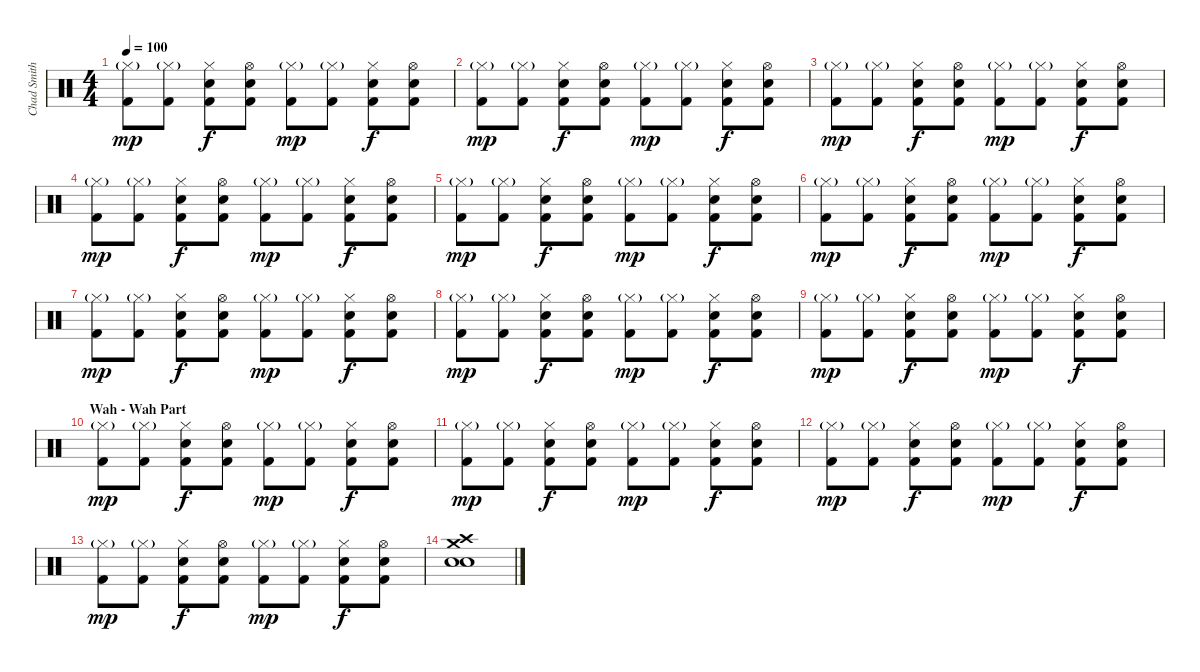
\track ("Chad Smith - Drums" "Chad Smith") {instrument percussion}
\staff {score}
\articulation defaults
\ts (4 4)
\tempo 100
\clef neutral
\ks c
("Hi-Hat (closed)"{g} "Kick (hit) 2").8{dy mp} ("Hi-Hat (closed)"{g} "Kick (hit) 2").8 ("Hi-Hat (closed)" "Electric Snare (hit)" "Kick (hit) 2").8{dy f} ("Hi-Hat (open)" "Electric Snare (hit)" "Kick (hit) 2").8 ("Hi-Hat (closed)"{g} "Kick (hit) 2").8{dy mp} ("Hi-Hat (closed)"{g} "Kick (hit) 2").8 ("Hi-Hat (closed)" "Electric Snare (hit)" "Kick (hit) 2").8{dy f} ("Hi-Hat (open)" "Electric Snare (hit)" "Kick (hit) 2").8 |
("Hi-Hat (closed)"{g} "Kick (hit) 2").8{dy mp} ("Hi-Hat (closed)"{g} "Kick (hit) 2").8 ("Hi-Hat (closed)" "Electric Snare (hit)" "Kick (hit) 2").8{dy f} ("Hi-Hat (open)" "Electric Snare (hit)" "Kick (hit) 2").8 ("Hi-Hat (closed)"{g} "Kick (hit) 2").8{dy mp} ("Hi-Hat (closed)"{g} "Kick (hit) 2").8 ("Hi-Hat (closed)" "Electric Snare (hit)" "Kick (hit) 2").8{dy f} ("Hi-Hat (open)" "Electric Snare (hit)" "Kick (hit) 2").8 |
("Hi-Hat (closed)"{g} "Kick (hit) 2").8{dy mp} ("Hi-Hat (closed)"{g} "Kick (hit) 2").8 ("Hi-Hat (closed)" "Electric Snare (hit)" "Kick (hit) 2").8{dy f} ("Hi-Hat (open)" "Electric Snare (hit)" "Kick (hit) 2").8 ("Hi-Hat (closed)"{g} "Kick (hit) 2").8{dy mp} ("Hi-Hat (closed)"{g} "Kick (hit) 2").8 ("Hi-Hat (closed)" "Electric Snare (hit)" "Kick (hit) 2").8{dy f} ("Hi-Hat (open)" "Electric Snare (hit)" "Kick (hit) 2").8 |
("Hi-Hat (closed)"{g} "Kick (hit) 2").8{dy mp} ("Hi-Hat (closed)"{g} "Kick (hit) 2").8 ("Hi-Hat (closed)" "Electric Snare (hit)" "Kick (hit) 2").8{dy f} ("Hi-Hat (open)" "Electric Snare (hit)" "Kick (hit) 2").8 ("Hi-Hat (closed)"{g} "Kick (hit) 2").8{dy mp} ("Hi-Hat (closed)"{g} "Kick (hit) 2").8 ("Hi-Hat (closed)" "Electric Snare (hit)" "Kick (hit) 2").8{dy f} ("Hi-Hat (open)" "Electric Snare (hit)" "Kick (hit) 2").8 |
("Hi-Hat (closed)"{g} "Kick (hit) 2").8{dy mp} ("Hi-Hat (closed)"{g} "Kick (hit) 2").8 ("Hi-Hat (closed)" "Electric Snare (hit)" "Kick (hit) 2").8{dy f} ("Hi-Hat (open)" "Electric Snare (hit)" "Kick (hit) 2").8 ("Hi-Hat (closed)"{g} "Kick (hit) 2").8{dy mp} ("Hi-Hat (closed)"{g} "Kick (hit) 2").8 ("Hi-Hat (closed)" "Electric Snare (hit)" "Kick (hit) 2").8{dy f} ("Hi-Hat (open)" "Electric Snare (hit)" "Kick (hit) 2").8 |
("Hi-Hat (closed)"{g} "Kick (hit) 2").8{dy mp} ("Hi-Hat (closed)"{g} "Kick (hit) 2").8 ("Hi-Hat (closed)" "Electric Snare (hit)" "Kick (hit) 2").8{dy f} ("Hi-Hat (open)" "Electric Snare (hit)" "Kick (hit) 2").8 ("Hi-Hat (closed)"{g} "Kick (hit) 2").8{dy mp} ("Hi-Hat (closed)"{g} "Kick (hit) 2").8 ("Hi-Hat (closed)" "Electric Snare (hit)" "Kick (hit) 2").8{dy f} ("Hi-Hat (open)" "Electric Snare (hit)" "Kick (hit) 2").8 |
("Hi-Hat (closed)"{g} "Kick (hit) 2").8{dy mp} ("Hi-Hat (closed)"{g} "Kick (hit) 2").8 ("Hi-Hat (closed)" "Electric Snare (hit)" "Kick (hit) 2").8{dy f} ("Hi-Hat (open)" "Electric Snare (hit)" "Kick (hit) 2").8 ("Hi-Hat (closed)"{g} "Kick (hit) 2").8{dy mp} ("Hi-Hat (closed)"{g} "Kick (hit) 2").8 ("Hi-Hat (closed)" "Electric Snare (hit)" "Kick (hit) 2").8{dy f} ("Hi-Hat (open)" "Electric Snare (hit)" "Kick (hit) 2").8 |
("Hi-Hat (closed)"{g} "Kick (hit) 2").8{dy mp} ("Hi-Hat (closed)"{g} "Kick (hit) 2").8 ("Hi-Hat (closed)" "Electric Snare (hit)" "Kick (hit) 2").8{dy f} ("Hi-Hat (open)" "Electric Snare (hit)" "Kick (hit) 2").8 ("Hi-Hat (closed)"{g} "Kick (hit) 2").8{dy mp} ("Hi-Hat (closed)"{g} "Kick (hit) 2").8 ("Hi-Hat (closed)" "Electric Snare (hit)" "Kick (hit) 2").8{dy f} ("Hi-Hat (open)" "Electric Snare (hit)" "Kick (hit) 2").8 |
("Hi-Hat (closed)"{g} "Kick (hit) 2").8{dy mp} ("Hi-Hat (closed)"{g} "Kick (hit) 2").8 ("Hi-Hat (closed)" "Electric Snare (hit)" "Kick (hit) 2").8{dy f} ("Hi-Hat (open)" "Electric Snare (hit)" "Kick (hit) 2").8 ("Hi-Hat (closed)"{g} "Kick (hit) 2").8{dy mp} ("Hi-Hat (closed)"{g} "Kick (hit) 2").8 ("Hi-Hat (closed)" "Electric Snare (hit)" "Kick (hit) 2").8{dy f} ("Hi-Hat (open)" "Electric Snare (hit)" "Kick (hit) 2").8 |
\section ("" "Wah - Wah Part")
("Hi-Hat (closed)"{g} "Kick (hit) 2").8{dy mp} ("Hi-Hat (closed)"{g} "Kick (hit) 2").8 ("Hi-Hat (closed)" "Electric Snare (hit)" "Kick (hit) 2").8{dy f} ("Hi-Hat (open)" "Electric Snare (hit)" "Kick (hit) 2").8 ("Hi-Hat (closed)"{g} "Kick (hit) 2").8{dy mp} ("Hi-Hat (closed)"{g} "Kick (hit) 2").8 ("Hi-Hat (closed)" "Electric Snare (hit)" "Kick (hit) 2").8{dy f} ("Hi-Hat (open)" "Electric Snare (hit)" "Kick (hit) 2").8 |
("Hi-Hat (closed)"{g} "Kick (hit) 2").8{dy mp} ("Hi-Hat (closed)"{g} "Kick (hit) 2").8 ("Hi-Hat (closed)" "Electric Snare (hit)" "Kick (hit) 2").8{dy f} ("Hi-Hat (open)" "Electric Snare (hit)" "Kick (hit) 2").8 ("Hi-Hat (closed)"{g} "Kick (hit) 2").8{dy mp} ("Hi-Hat (closed)"{g} "Kick (hit) 2").8 ("Hi-Hat (closed)" "Electric Snare (hit)" "Kick (hit) 2").8{dy f} ("Hi-Hat (open)" "Electric Snare (hit)" "Kick (hit) 2").8 |
("Hi-Hat (closed)"{g} "Kick (hit) 2").8{dy mp} ("Hi-Hat (closed)"{g} "Kick (hit) 2").8 ("Hi-Hat (closed)" "Electric Snare (hit)" "Kick (hit) 2").8{dy f} ("Hi-Hat (open)" "Electric Snare (hit)" "Kick (hit) 2").8 ("Hi-Hat (closed)"{g} "Kick (hit) 2").8{dy mp} ("Hi-Hat (closed)"{g} "Kick (hit) 2").8 ("Hi-Hat (closed)" "Electric Snare (hit)" "Kick (hit) 2").8{dy f} ("Hi-Hat (open)" "Electric Snare (hit)" "Kick (hit) 2").8 |
("Hi-Hat (closed)"{g} "Kick (hit) 2").8{dy mp} ("Hi-Hat (closed)"{g} "Kick (hit) 2").8 ("Hi-Hat (closed)" "Electric Snare (hit)" "Kick (hit) 2").8{dy f} ("Hi-Hat (open)" "Electric Snare (hit)" "Kick (hit) 2").8 ("Hi-Hat (closed)"{g} "Kick (hit) 2").8{dy mp} ("Hi-Hat (closed)"{g} "Kick (hit) 2").8 ("Hi-Hat (closed)" "Electric Snare (hit)" "Kick (hit) 2").8{dy f} ("Hi-Hat (open)" "Electric Snare (hit)" "Kick (hit) 2").8 |
("Crash high (hit)" "Crash medium (hit)" "Electric Snare (hit)" "Snare (hit) 2").1
